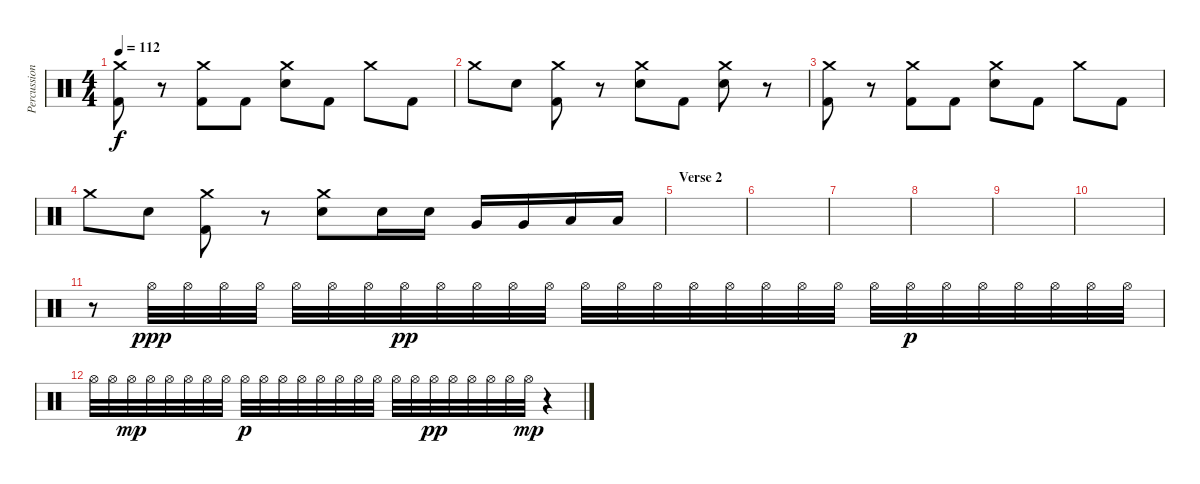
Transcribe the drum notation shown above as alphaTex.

\track ("Percussion" "Percussion") {instrument percussion}
\staff {score}
\articulation defaults
\ts (4 4)
\tempo 112
\clef neutral
\ks c
("Crash medium (hit)" "Kick (hit) 2").8{dy f} r.8 ("Crash medium (hit)" "Kick (hit) 2").8 "Kick (hit) 2".8 ("Crash medium (hit)" "Snare (hit) 2").8 "Kick (hit) 2".8 "Crash medium (hit)".8 "Kick (hit) 2".8 |
"Crash medium (hit)".8 "Snare (hit) 2".8 ("Crash medium (hit)" "Kick (hit) 2").8 r.8 ("Crash medium (hit)" "Snare (hit) 2").8 "Kick (hit) 2".8 ("Crash medium (hit)" "Snare (hit) 2").8 r.8 |
("Crash medium (hit)" "Kick (hit) 2").8 r.8 ("Crash medium (hit)" "Kick (hit) 2").8 "Kick (hit) 2".8 ("Crash medium (hit)" "Snare (hit) 2").8 "Kick (hit) 2".8 "Crash medium (hit)".8 "Kick (hit) 2".8 |
"Crash medium (hit)".8 "Snare (hit) 2".8 ("Crash medium (hit)" "Kick (hit) 2").8 r.8 ("Crash medium (hit)" "Snare (hit) 2").8 "Snare (hit) 2".16 "Snare (hit) 2".16 "Very Low Tom (hit)".16 "Very Low Tom (hit)".16 "Low Floor Tom (hit)".16 "Low Floor Tom (hit)".16 |
\section ("" "Verse 2")
|
|
|
|
|
|
r.8 "Hi-Hat (open)".32{dy ppp} "Hi-Hat (open)".32 "Hi-Hat (open)".32 "Hi-Hat (open)".32 "Hi-Hat (open)".32 "Hi-Hat (open)".32 "Hi-Hat (open)".32 "Hi-Hat (open)".32{dy pp} "Hi-Hat (open)".32 "Hi-Hat (open)".32 "Hi-Hat (open)".32 "Hi-Hat (open)".32 "Hi-Hat (open)".32 "Hi-Hat (open)".32 "Hi-Hat (open)".32 "Hi-Hat (open)".32 "Hi-Hat (open)".32 "Hi-Hat (open)".32 "Hi-Hat (open)".32 "Hi-Hat (open)".32 "Hi-Hat (open)".32 "Hi-Hat (open)".32{dy p} "Hi-Hat (open)".32 "Hi-Hat (open)".32 "Hi-Hat (open)".32 "Hi-Hat (open)".32 "Hi-Hat (open)".32 "Hi-Hat (open)".32 |
"Hi-Hat (open)".32 "Hi-Hat (open)".32 "Hi-Hat (open)".32{dy mp} "Hi-Hat (open)".32 "Hi-Hat (open)".32 "Hi-Hat (open)".32 "Hi-Hat (open)".32 "Hi-Hat (open)".32 "Hi-Hat (open)".32{dy p} "Hi-Hat (open)".32 "Hi-Hat (open)".32 "Hi-Hat (open)".32 "Hi-Hat (open)".32 "Hi-Hat (open)".32 "Hi-Hat (open)".32 "Hi-Hat (open)".32 "Hi-Hat (open)".32 "Hi-Hat (open)".32 "Hi-Hat (open)".32{dy pp} "Hi-Hat (open)".32 "Hi-Hat (open)".32 "Hi-Hat (open)".32 "Hi-Hat (open)".32 "Hi-Hat (open)".32{dy mp} r.4
